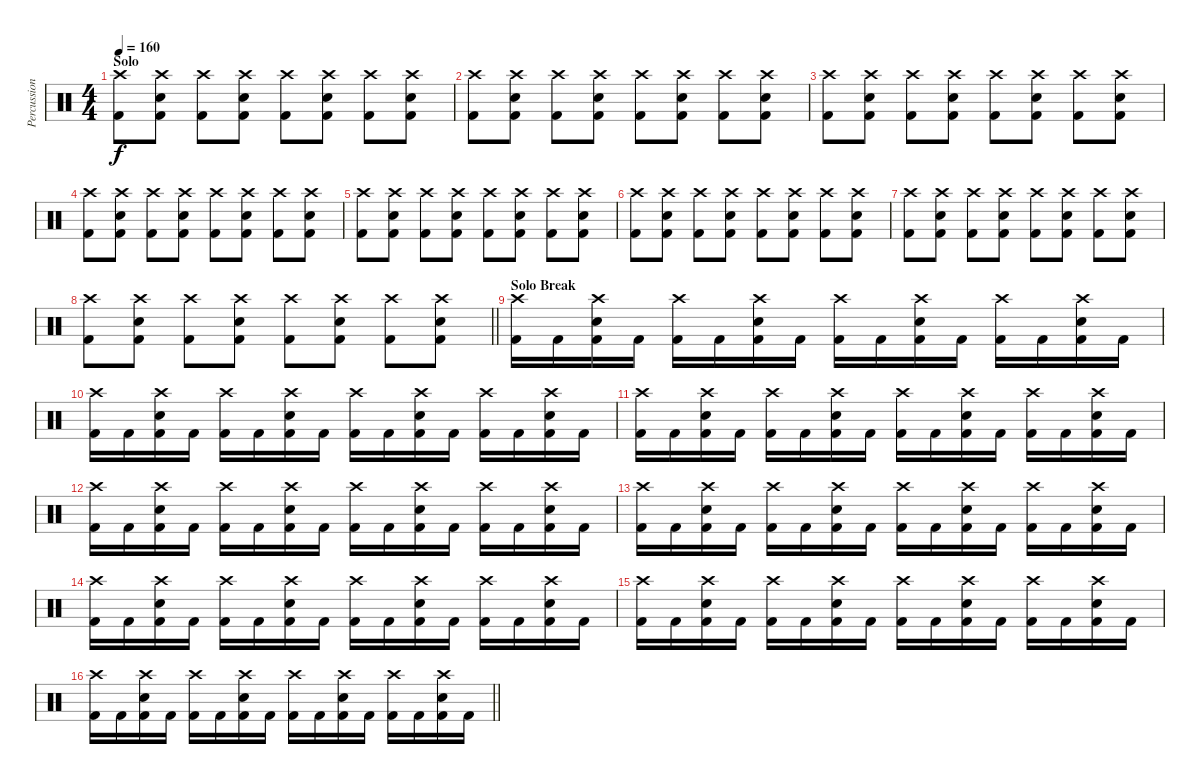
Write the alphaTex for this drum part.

\track ("Percussion" "Percussion") {instrument percussion}
\staff {score}
\articulation defaults
\ts (4 4)
\section ("" "Solo")
\tempo 160
\clef neutral
\ks c
("Crash high (hit)" "Kick (hit) 2").8{dy f} ("Crash high (hit)" "Snare (hit) 2" "Kick (hit) 2").8 ("Crash high (hit)" "Kick (hit) 2").8 ("Crash high (hit)" "Snare (hit) 2" "Kick (hit) 2").8 ("Crash high (hit)" "Kick (hit) 2").8 ("Crash high (hit)" "Snare (hit) 2" "Kick (hit) 2").8 ("Crash high (hit)" "Kick (hit) 2").8 ("Crash high (hit)" "Snare (hit) 2" "Kick (hit) 2").8 |
("Crash high (hit)" "Kick (hit) 2").8 ("Crash high (hit)" "Snare (hit) 2" "Kick (hit) 2").8 ("Crash high (hit)" "Kick (hit) 2").8 ("Crash high (hit)" "Snare (hit) 2" "Kick (hit) 2").8 ("Crash high (hit)" "Kick (hit) 2").8 ("Crash high (hit)" "Snare (hit) 2" "Kick (hit) 2").8 ("Crash high (hit)" "Kick (hit) 2").8 ("Crash high (hit)" "Snare (hit) 2" "Kick (hit) 2").8 |
("Crash high (hit)" "Kick (hit) 2").8 ("Crash high (hit)" "Snare (hit) 2" "Kick (hit) 2").8 ("Crash high (hit)" "Kick (hit) 2").8 ("Crash high (hit)" "Snare (hit) 2" "Kick (hit) 2").8 ("Crash high (hit)" "Kick (hit) 2").8 ("Crash high (hit)" "Snare (hit) 2" "Kick (hit) 2").8 ("Crash high (hit)" "Kick (hit) 2").8 ("Crash high (hit)" "Snare (hit) 2" "Kick (hit) 2").8 |
("Crash high (hit)" "Kick (hit) 2").8 ("Crash high (hit)" "Snare (hit) 2" "Kick (hit) 2").8 ("Crash high (hit)" "Kick (hit) 2").8 ("Crash high (hit)" "Snare (hit) 2" "Kick (hit) 2").8 ("Crash high (hit)" "Kick (hit) 2").8 ("Crash high (hit)" "Snare (hit) 2" "Kick (hit) 2").8 ("Crash high (hit)" "Kick (hit) 2").8 ("Crash high (hit)" "Snare (hit) 2" "Kick (hit) 2").8 |
("Crash high (hit)" "Kick (hit) 2").8 ("Crash high (hit)" "Snare (hit) 2" "Kick (hit) 2").8 ("Crash high (hit)" "Kick (hit) 2").8 ("Crash high (hit)" "Snare (hit) 2" "Kick (hit) 2").8 ("Crash high (hit)" "Kick (hit) 2").8 ("Crash high (hit)" "Snare (hit) 2" "Kick (hit) 2").8 ("Crash high (hit)" "Kick (hit) 2").8 ("Crash high (hit)" "Snare (hit) 2" "Kick (hit) 2").8 |
("Crash high (hit)" "Kick (hit) 2").8 ("Crash high (hit)" "Snare (hit) 2" "Kick (hit) 2").8 ("Crash high (hit)" "Kick (hit) 2").8 ("Crash high (hit)" "Snare (hit) 2" "Kick (hit) 2").8 ("Crash high (hit)" "Kick (hit) 2").8 ("Crash high (hit)" "Snare (hit) 2" "Kick (hit) 2").8 ("Crash high (hit)" "Kick (hit) 2").8 ("Crash high (hit)" "Snare (hit) 2" "Kick (hit) 2").8 |
("Crash high (hit)" "Kick (hit) 2").8 ("Crash high (hit)" "Snare (hit) 2" "Kick (hit) 2").8 ("Crash high (hit)" "Kick (hit) 2").8 ("Crash high (hit)" "Snare (hit) 2" "Kick (hit) 2").8 ("Crash high (hit)" "Kick (hit) 2").8 ("Crash high (hit)" "Snare (hit) 2" "Kick (hit) 2").8 ("Crash high (hit)" "Kick (hit) 2").8 ("Crash high (hit)" "Snare (hit) 2" "Kick (hit) 2").8 |
\barLineRight lightlight
("Crash high (hit)" "Kick (hit) 2").8 ("Crash high (hit)" "Snare (hit) 2" "Kick (hit) 2").8 ("Crash high (hit)" "Kick (hit) 2").8 ("Crash high (hit)" "Snare (hit) 2" "Kick (hit) 2").8 ("Crash high (hit)" "Kick (hit) 2").8 ("Crash high (hit)" "Snare (hit) 2" "Kick (hit) 2").8 ("Crash high (hit)" "Kick (hit) 2").8 ("Crash high (hit)" "Snare (hit) 2" "Kick (hit) 2").8 |
\section ("" "Solo Break")
("Crash high (hit)" "Kick (hit) 2").16 "Kick (hit) 2".16 ("Crash high (hit)" "Snare (hit) 2" "Kick (hit) 2").16 "Kick (hit) 2".16 ("Crash high (hit)" "Kick (hit) 2").16 "Kick (hit) 2".16 ("Crash high (hit)" "Snare (hit) 2" "Kick (hit) 2").16 "Kick (hit) 2".16 ("Crash high (hit)" "Kick (hit) 2").16 "Kick (hit) 2".16 ("Crash high (hit)" "Snare (hit) 2" "Kick (hit) 2").16 "Kick (hit) 2".16 ("Crash high (hit)" "Kick (hit) 2").16 "Kick (hit) 2".16 ("Crash high (hit)" "Snare (hit) 2" "Kick (hit) 2").16 "Kick (hit) 2".16 |
("Crash high (hit)" "Kick (hit) 2").16 "Kick (hit) 2".16 ("Crash high (hit)" "Snare (hit) 2" "Kick (hit) 2").16 "Kick (hit) 2".16 ("Crash high (hit)" "Kick (hit) 2").16 "Kick (hit) 2".16 ("Crash high (hit)" "Snare (hit) 2" "Kick (hit) 2").16 "Kick (hit) 2".16 ("Crash high (hit)" "Kick (hit) 2").16 "Kick (hit) 2".16 ("Crash high (hit)" "Snare (hit) 2" "Kick (hit) 2").16 "Kick (hit) 2".16 ("Crash high (hit)" "Kick (hit) 2").16 "Kick (hit) 2".16 ("Crash high (hit)" "Snare (hit) 2" "Kick (hit) 2").16 "Kick (hit) 2".16 |
("Crash high (hit)" "Kick (hit) 2").16 "Kick (hit) 2".16 ("Crash high (hit)" "Snare (hit) 2" "Kick (hit) 2").16 "Kick (hit) 2".16 ("Crash high (hit)" "Kick (hit) 2").16 "Kick (hit) 2".16 ("Crash high (hit)" "Snare (hit) 2" "Kick (hit) 2").16 "Kick (hit) 2".16 ("Crash high (hit)" "Kick (hit) 2").16 "Kick (hit) 2".16 ("Crash high (hit)" "Snare (hit) 2" "Kick (hit) 2").16 "Kick (hit) 2".16 ("Crash high (hit)" "Kick (hit) 2").16 "Kick (hit) 2".16 ("Crash high (hit)" "Snare (hit) 2" "Kick (hit) 2").16 "Kick (hit) 2".16 |
("Crash high (hit)" "Kick (hit) 2").16 "Kick (hit) 2".16 ("Crash high (hit)" "Snare (hit) 2" "Kick (hit) 2").16 "Kick (hit) 2".16 ("Crash high (hit)" "Kick (hit) 2").16 "Kick (hit) 2".16 ("Crash high (hit)" "Snare (hit) 2" "Kick (hit) 2").16 "Kick (hit) 2".16 ("Crash high (hit)" "Kick (hit) 2").16 "Kick (hit) 2".16 ("Crash high (hit)" "Snare (hit) 2" "Kick (hit) 2").16 "Kick (hit) 2".16 ("Crash high (hit)" "Kick (hit) 2").16 "Kick (hit) 2".16 ("Crash high (hit)" "Snare (hit) 2" "Kick (hit) 2").16 "Kick (hit) 2".16 |
("Crash high (hit)" "Kick (hit) 2").16 "Kick (hit) 2".16 ("Crash high (hit)" "Snare (hit) 2" "Kick (hit) 2").16 "Kick (hit) 2".16 ("Crash high (hit)" "Kick (hit) 2").16 "Kick (hit) 2".16 ("Crash high (hit)" "Snare (hit) 2" "Kick (hit) 2").16 "Kick (hit) 2".16 ("Crash high (hit)" "Kick (hit) 2").16 "Kick (hit) 2".16 ("Crash high (hit)" "Snare (hit) 2" "Kick (hit) 2").16 "Kick (hit) 2".16 ("Crash high (hit)" "Kick (hit) 2").16 "Kick (hit) 2".16 ("Crash high (hit)" "Snare (hit) 2" "Kick (hit) 2").16 "Kick (hit) 2".16 |
("Crash high (hit)" "Kick (hit) 2").16 "Kick (hit) 2".16 ("Crash high (hit)" "Snare (hit) 2" "Kick (hit) 2").16 "Kick (hit) 2".16 ("Crash high (hit)" "Kick (hit) 2").16 "Kick (hit) 2".16 ("Crash high (hit)" "Snare (hit) 2" "Kick (hit) 2").16 "Kick (hit) 2".16 ("Crash high (hit)" "Kick (hit) 2").16 "Kick (hit) 2".16 ("Crash high (hit)" "Snare (hit) 2" "Kick (hit) 2").16 "Kick (hit) 2".16 ("Crash high (hit)" "Kick (hit) 2").16 "Kick (hit) 2".16 ("Crash high (hit)" "Snare (hit) 2" "Kick (hit) 2").16 "Kick (hit) 2".16 |
("Crash high (hit)" "Kick (hit) 2").16 "Kick (hit) 2".16 ("Crash high (hit)" "Snare (hit) 2" "Kick (hit) 2").16 "Kick (hit) 2".16 ("Crash high (hit)" "Kick (hit) 2").16 "Kick (hit) 2".16 ("Crash high (hit)" "Snare (hit) 2" "Kick (hit) 2").16 "Kick (hit) 2".16 ("Crash high (hit)" "Kick (hit) 2").16 "Kick (hit) 2".16 ("Crash high (hit)" "Snare (hit) 2" "Kick (hit) 2").16 "Kick (hit) 2".16 ("Crash high (hit)" "Kick (hit) 2").16 "Kick (hit) 2".16 ("Crash high (hit)" "Snare (hit) 2" "Kick (hit) 2").16 "Kick (hit) 2".16 |
\barLineRight lightlight
("Crash high (hit)" "Kick (hit) 2").16 "Kick (hit) 2".16 ("Crash high (hit)" "Snare (hit) 2" "Kick (hit) 2").16 "Kick (hit) 2".16 ("Crash high (hit)" "Kick (hit) 2").16 "Kick (hit) 2".16 ("Crash high (hit)" "Snare (hit) 2" "Kick (hit) 2").16 "Kick (hit) 2".16 ("Crash high (hit)" "Kick (hit) 2").16 "Kick (hit) 2".16 ("Crash high (hit)" "Snare (hit) 2" "Kick (hit) 2").16 "Kick (hit) 2".16 ("Crash high (hit)" "Kick (hit) 2").16 "Kick (hit) 2".16 ("Crash high (hit)" "Snare (hit) 2" "Kick (hit) 2").16 "Kick (hit) 2".16
